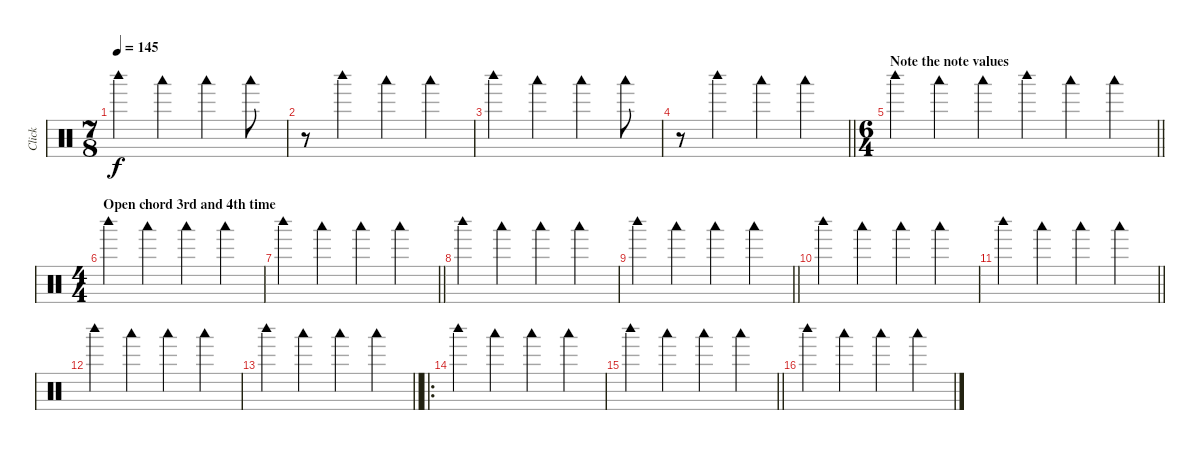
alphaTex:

\track ("Click" "Click") {mute instrument percussion}
\staff {score}
\articulation defaults
\ts (7 8)
\tempo 145
\clef neutral
\ks c "Woodblock high (hit)".4{dy f} "Woodblock low (hit)".4 "Woodblock low (hit)".4 "Woodblock low (hit)".8
|
r.8 "Woodblock high (hit)".4 "Woodblock low (hit)".4 "Woodblock low (hit)".4 |
"Woodblock high (hit)".4 "Woodblock low (hit)".4 "Woodblock low (hit)".4 "Woodblock low (hit)".8 |
\barLineRight lightlight
r.8 "Woodblock high (hit)".4 "Woodblock low (hit)".4 "Woodblock low (hit)".4 |
\ts (6 4)
\section ("" "Note the note values")
\barLineRight lightlight "Woodblock high (hit)".4 "Woodblock low (hit)".4 "Woodblock low (hit)".4 "Woodblock high (hit)".4 "Woodblock low (hit)".4 "Woodblock low (hit)".4
|
\ts (4 4)
\section ("" "Open chord 3rd and 4th time")
"Woodblock high (hit)".4 "Woodblock low (hit)".4 "Woodblock low (hit)".4 "Woodblock low (hit)".4 |
\barLineRight lightlight "Woodblock high (hit)".4 "Woodblock low (hit)".4 "Woodblock low (hit)".4 "Woodblock low (hit)".4
|
"Woodblock high (hit)".4 "Woodblock low (hit)".4 "Woodblock low (hit)".4 "Woodblock low (hit)".4 |
\barLineRight lightlight "Woodblock high (hit)".4 "Woodblock low (hit)".4 "Woodblock low (hit)".4 "Woodblock low (hit)".4
|
"Woodblock high (hit)".4 "Woodblock low (hit)".4 "Woodblock low (hit)".4 "Woodblock low (hit)".4 |
\barLineRight lightlight "Woodblock high (hit)".4 "Woodblock low (hit)".4 "Woodblock low (hit)".4 "Woodblock low (hit)".4
|
"Woodblock high (hit)".4 "Woodblock low (hit)".4 "Woodblock low (hit)".4 "Woodblock low (hit)".4 |
\barLineRight lightlight "Woodblock high (hit)".4 "Woodblock low (hit)".4 "Woodblock low (hit)".4 "Woodblock low (hit)".4
|
\ro "Woodblock high (hit)".4 "Woodblock low (hit)".4 "Woodblock low (hit)".4 "Woodblock low (hit)".4
|
\barLineRight lightlight "Woodblock high (hit)".4 "Woodblock low (hit)".4 "Woodblock low (hit)".4 "Woodblock low (hit)".4
|
"Woodblock high (hit)".4 "Woodblock low (hit)".4 "Woodblock low (hit)".4 "Woodblock low (hit)".4
